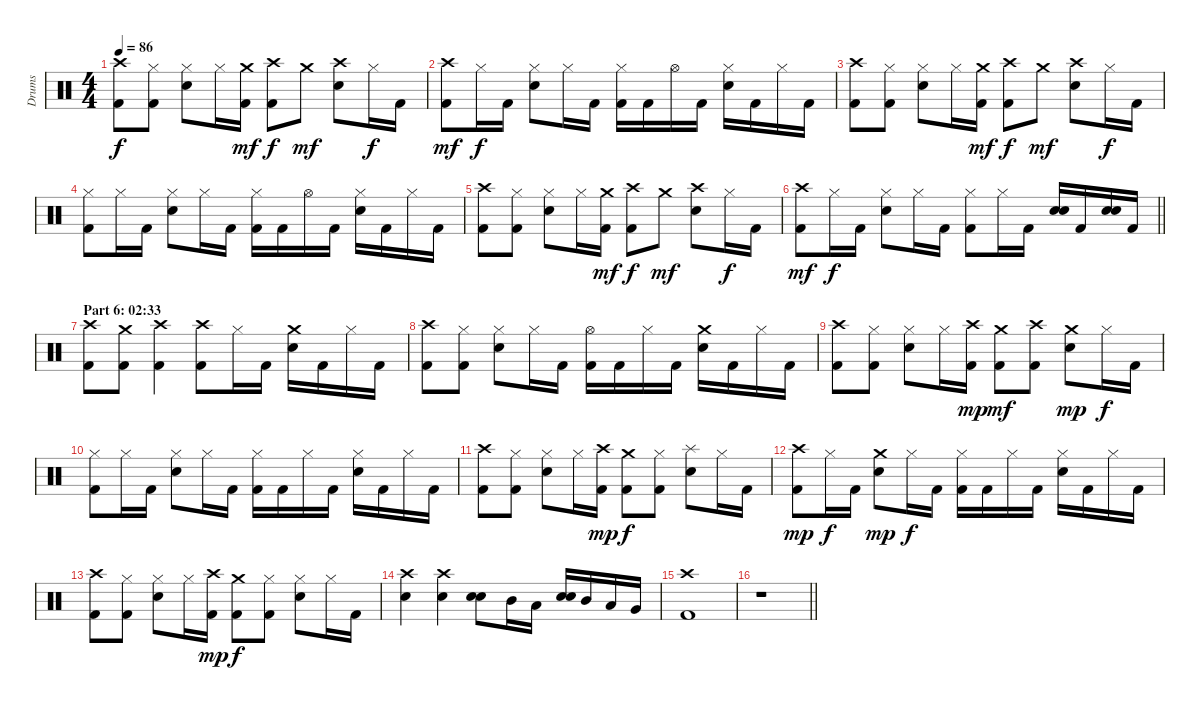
\track ("Drums" "Drums") {instrument percussion}
\staff {score}
\articulation defaults
\ts (4 4)
\tempo 86
\clef neutral
\ks c
("Crash high (hit)" "Kick (hit) 2").8{dy f} ("Hi-Hat (closed)" "Kick (hit) 2").8 ("Hi-Hat (closed)" "Electric Snare (hit)").8 "Hi-Hat (closed)".16 ("Crash medium (hit)" "Kick (hit) 2").16{dy mf} ("Crash high (hit)" "Kick (hit) 2").8{dy f} "Crash medium (hit)".8{dy mf} ("Crash high (hit)" "Electric Snare (hit)").8 "Hi-Hat (closed)".16{dy f} "Kick (hit) 2".16 |
("Crash high (hit)" "Kick (hit) 2").8{dy mf} "Hi-Hat (closed)".16{dy f} "Kick (hit) 2".16 ("Hi-Hat (closed)" "Electric Snare (hit)").8 "Hi-Hat (closed)".16 "Kick (hit) 2".16 ("Hi-Hat (closed)" "Kick (hit) 2").16 "Kick (hit) 2".16 "Hi-Hat (open)".16 "Kick (hit) 2".16 ("Hi-Hat (closed)" "Electric Snare (hit)").16 "Kick (hit) 2".16 "Hi-Hat (closed)".16 "Kick (hit) 2".16 |
("Crash high (hit)" "Kick (hit) 2").8 ("Hi-Hat (closed)" "Kick (hit) 2").8 ("Hi-Hat (closed)" "Electric Snare (hit)").8 "Hi-Hat (closed)".16 ("Crash medium (hit)" "Kick (hit) 2").16{dy mf} ("Crash high (hit)" "Kick (hit) 2").8{dy f} "Crash medium (hit)".8{dy mf} ("Crash high (hit)" "Electric Snare (hit)").8 "Hi-Hat (closed)".16{dy f} "Kick (hit) 2".16 |
("Hi-Hat (closed)" "Kick (hit) 2").8 "Hi-Hat (closed)".16 "Kick (hit) 2".16 ("Hi-Hat (closed)" "Electric Snare (hit)").8 "Hi-Hat (closed)".16 "Kick (hit) 2".16 ("Hi-Hat (closed)" "Kick (hit) 2").16 "Kick (hit) 2".16 "Hi-Hat (open)".16 "Kick (hit) 2".16 ("Hi-Hat (closed)" "Electric Snare (hit)").16 "Kick (hit) 2".16 "Hi-Hat (closed)".16 "Kick (hit) 2".16 |
("Crash high (hit)" "Kick (hit) 2").8 ("Hi-Hat (closed)" "Kick (hit) 2").8 ("Hi-Hat (closed)" "Electric Snare (hit)").8 "Hi-Hat (closed)".16 ("Crash medium (hit)" "Kick (hit) 2").16{dy mf} ("Crash high (hit)" "Kick (hit) 2").8{dy f} "Crash medium (hit)".8{dy mf} ("Crash high (hit)" "Electric Snare (hit)").8 "Hi-Hat (closed)".16{dy f} "Kick (hit) 2".16 |
\barLineRight lightlight
("Crash high (hit)" "Kick (hit) 2").8{dy mf} "Hi-Hat (closed)".16{dy f} "Kick (hit) 2".16 ("Hi-Hat (closed)" "Electric Snare (hit)").8 "Hi-Hat (closed)".16 "Kick (hit) 2".16 ("Hi-Hat (closed)" "Kick (hit) 2").8 "Hi-Hat (closed)".16 "Kick (hit) 2".16 ("Electric Snare (hit)" "Electric Snare (hit)").16{bd 120} "Kick (hit) 2".16 ("Electric Snare (hit)" "Electric Snare (hit)").16{bd 120} "Kick (hit) 2".16 |
\section ("" "Part 6: 02:33")
("Crash high (hit)" "Kick (hit) 2").8 ("Crash medium (hit)" "Kick (hit) 2").8 ("Crash high (hit)" "Kick (hit) 2").4 ("Crash high (hit)" "Kick (hit) 2").8 "Hi-Hat (closed)".16 "Kick (hit) 2".16 ("Crash medium (hit)" "Electric Snare (hit)").16 "Kick (hit) 2".16 "Hi-Hat (closed)".16 "Kick (hit) 2".16 |
("Crash high (hit)" "Kick (hit) 2").8 ("Hi-Hat (closed)" "Kick (hit) 2").8 ("Hi-Hat (closed)" "Electric Snare (hit)").8 "Hi-Hat (closed)".16 "Kick (hit) 2".16 ("Hi-Hat (open)" "Kick (hit) 2").16 "Kick (hit) 2".16 "Hi-Hat (closed)".16 "Kick (hit) 2".16 ("Crash medium (hit)" "Electric Snare (hit)").16 "Kick (hit) 2".16 "Hi-Hat (closed)".16 "Kick (hit) 2".16 |
("Crash high (hit)" "Kick (hit) 2").8 ("Hi-Hat (closed)" "Kick (hit) 2").8 ("Hi-Hat (closed)" "Electric Snare (hit)").8 "Hi-Hat (closed)".16 ("Crash high (hit)" "Kick (hit) 2").16{dy mp} ("Crash medium (hit)" "Kick (hit) 2").8{dy mf} ("Crash high (hit)" "Kick (hit) 2").8 ("Crash medium (hit)" "Electric Snare (hit)").8{dy mp} "Hi-Hat (closed)".16{dy f} "Kick (hit) 2".16 |
("Hi-Hat (closed)" "Kick (hit) 2").8 "Hi-Hat (closed)".16 "Kick (hit) 2".16 ("Hi-Hat (closed)" "Electric Snare (hit)").8 "Hi-Hat (closed)".16 "Kick (hit) 2".16 ("Hi-Hat (closed)" "Kick (hit) 2").16 "Kick (hit) 2".16 "Hi-Hat (closed)".16 "Kick (hit) 2".16 ("Hi-Hat (closed)" "Electric Snare (hit)").16 "Kick (hit) 2".16 "Hi-Hat (closed)".16 "Kick (hit) 2".16 |
("Crash high (hit)" "Kick (hit) 2").8 ("Hi-Hat (closed)" "Kick (hit) 2").8 ("Hi-Hat (closed)" "Electric Snare (hit)").8 "Hi-Hat (closed)".16 ("Crash high (hit)" "Kick (hit) 2").16{dy mp} ("Crash medium (hit)" "Kick (hit) 2").8{dy f} ("Hi-Hat (closed)" "Kick (hit) 2").8 ("Splash (hit)" "Electric Snare (hit)").8 "Hi-Hat (closed)".16 "Kick (hit) 2".16 |
("Crash high (hit)" "Kick (hit) 2").8{dy mp} "Hi-Hat (closed)".16{dy f} "Kick (hit) 2".16 ("Crash medium (hit)" "Electric Snare (hit)").8{dy mp} "Hi-Hat (closed)".16{dy f} "Kick (hit) 2".16 ("Hi-Hat (closed)" "Kick (hit) 2").16 "Kick (hit) 2".16 "Hi-Hat (closed)".16 "Kick (hit) 2".16 ("Hi-Hat (closed)" "Electric Snare (hit)").16 "Kick (hit) 2".16 "Hi-Hat (closed)".16 "Kick (hit) 2".16 |
("Crash high (hit)" "Kick (hit) 2").8 ("Hi-Hat (closed)" "Kick (hit) 2").8 ("Hi-Hat (closed)" "Electric Snare (hit)").8 "Hi-Hat (closed)".16 ("Crash high (hit)" "Kick (hit) 2").16{dy mp} ("Crash medium (hit)" "Kick (hit) 2").8{dy f} ("Hi-Hat (closed)" "Kick (hit) 2").8 ("Hi-Hat (closed)" "Electric Snare (hit)").8 "Hi-Hat (closed)".16 "Kick (hit) 2".16 |
("Crash high (hit)" "Electric Snare (hit)").4 ("Crash high (hit)" "Electric Snare (hit)").4 ("Electric Snare (hit)" "Electric Snare (hit)").8{bd 120} "Mid Tom (hit)".16 "Low Tom (hit)".16 ("Electric Snare (hit)" "Electric Snare (hit)").16{bd 120} "Mid Tom (hit)".16 "Low Tom (hit)".16 "Very Low Tom (hit)".16 |
("Crash high (hit)" "Kick (hit) 2").1 |
\barLineRight lightlight
r.1
